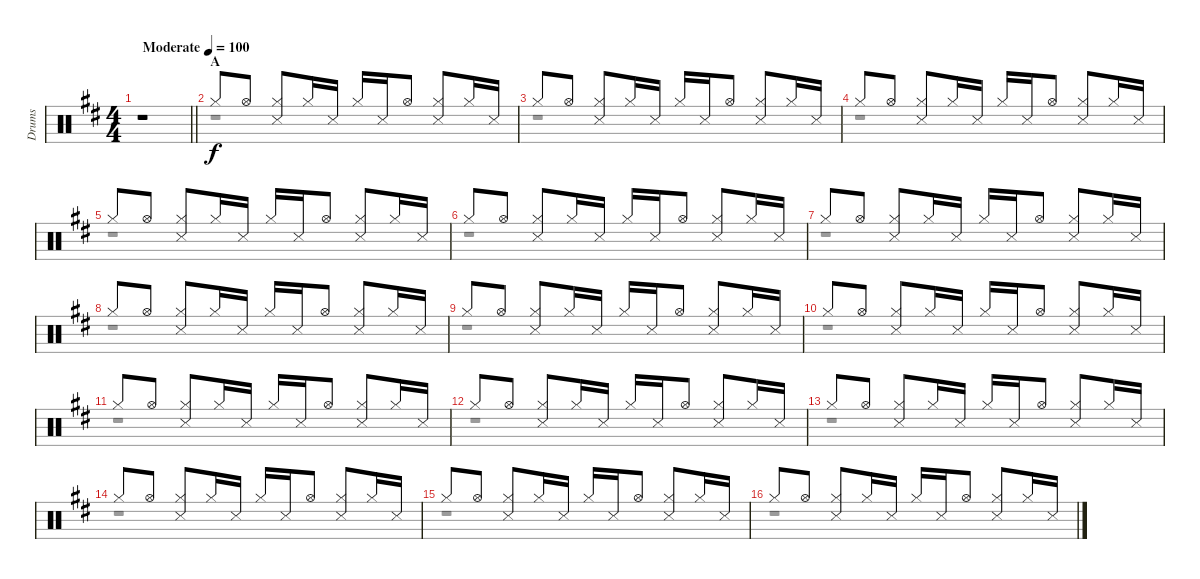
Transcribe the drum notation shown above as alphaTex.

\track ("Drums" "Drums") {instrument percussion}
\staff {score}
\articulation defaults
\voice
\ts (4 4)
\tempo (100 "Moderate")
\clef neutral
\barLineRight lightlight
\ks d
r.1{dy f} |
\section ("" "A")
"Hi-Hat (closed)".8 "Hi-Hat (open)".8 ("Hi-Hat (closed)" "Snare (side stick) 3").8 "Hi-Hat (closed)".16 "Snare (side stick) 3".16 "Hi-Hat (closed)".16 "Snare (side stick) 3".16 "Hi-Hat (open)".8 ("Hi-Hat (closed)" "Snare (side stick) 3").8 "Hi-Hat (closed)".16 "Snare (side stick) 3".16 |
"Hi-Hat (closed)".8 "Hi-Hat (open)".8 ("Hi-Hat (closed)" "Snare (side stick) 3").8 "Hi-Hat (closed)".16 "Snare (side stick) 3".16 "Hi-Hat (closed)".16 "Snare (side stick) 3".16 "Hi-Hat (open)".8 ("Hi-Hat (closed)" "Snare (side stick) 3").8 "Hi-Hat (closed)".16 "Snare (side stick) 3".16 |
"Hi-Hat (closed)".8 "Hi-Hat (open)".8 ("Hi-Hat (closed)" "Snare (side stick) 3").8 "Hi-Hat (closed)".16 "Snare (side stick) 3".16 "Hi-Hat (closed)".16 "Snare (side stick) 3".16 "Hi-Hat (open)".8 ("Hi-Hat (closed)" "Snare (side stick) 3").8 "Hi-Hat (closed)".16 "Snare (side stick) 3".16 |
"Hi-Hat (closed)".8 "Hi-Hat (open)".8 ("Hi-Hat (closed)" "Snare (side stick) 3").8 "Hi-Hat (closed)".16 "Snare (side stick) 3".16 "Hi-Hat (closed)".16 "Snare (side stick) 3".16 "Hi-Hat (open)".8 ("Hi-Hat (closed)" "Snare (side stick) 3").8 "Hi-Hat (closed)".16 "Snare (side stick) 3".16 |
"Hi-Hat (closed)".8 "Hi-Hat (open)".8 ("Hi-Hat (closed)" "Snare (side stick) 3").8 "Hi-Hat (closed)".16 "Snare (side stick) 3".16 "Hi-Hat (closed)".16 "Snare (side stick) 3".16 "Hi-Hat (open)".8 ("Hi-Hat (closed)" "Snare (side stick) 3").8 "Hi-Hat (closed)".16 "Snare (side stick) 3".16 |
"Hi-Hat (closed)".8 "Hi-Hat (open)".8 ("Hi-Hat (closed)" "Snare (side stick) 3").8 "Hi-Hat (closed)".16 "Snare (side stick) 3".16 "Hi-Hat (closed)".16 "Snare (side stick) 3".16 "Hi-Hat (open)".8 ("Hi-Hat (closed)" "Snare (side stick) 3").8 "Hi-Hat (closed)".16 "Snare (side stick) 3".16 |
"Hi-Hat (closed)".8 "Hi-Hat (open)".8 ("Hi-Hat (closed)" "Snare (side stick) 3").8 "Hi-Hat (closed)".16 "Snare (side stick) 3".16 "Hi-Hat (closed)".16 "Snare (side stick) 3".16 "Hi-Hat (open)".8 ("Hi-Hat (closed)" "Snare (side stick) 3").8 "Hi-Hat (closed)".16 "Snare (side stick) 3".16 |
"Hi-Hat (closed)".8 "Hi-Hat (open)".8 ("Hi-Hat (closed)" "Snare (side stick) 3").8 "Hi-Hat (closed)".16 "Snare (side stick) 3".16 "Hi-Hat (closed)".16 "Snare (side stick) 3".16 "Hi-Hat (open)".8 ("Hi-Hat (closed)" "Snare (side stick) 3").8 "Hi-Hat (closed)".16 "Snare (side stick) 3".16 |
"Hi-Hat (closed)".8 "Hi-Hat (open)".8 ("Hi-Hat (closed)" "Snare (side stick) 3").8 "Hi-Hat (closed)".16 "Snare (side stick) 3".16 "Hi-Hat (closed)".16 "Snare (side stick) 3".16 "Hi-Hat (open)".8 ("Hi-Hat (closed)" "Snare (side stick) 3").8 "Hi-Hat (closed)".16 "Snare (side stick) 3".16 |
"Hi-Hat (closed)".8 "Hi-Hat (open)".8 ("Hi-Hat (closed)" "Snare (side stick) 3").8 "Hi-Hat (closed)".16 "Snare (side stick) 3".16 "Hi-Hat (closed)".16 "Snare (side stick) 3".16 "Hi-Hat (open)".8 ("Hi-Hat (closed)" "Snare (side stick) 3").8 "Hi-Hat (closed)".16 "Snare (side stick) 3".16 |
"Hi-Hat (closed)".8 "Hi-Hat (open)".8 ("Hi-Hat (closed)" "Snare (side stick) 3").8 "Hi-Hat (closed)".16 "Snare (side stick) 3".16 "Hi-Hat (closed)".16 "Snare (side stick) 3".16 "Hi-Hat (open)".8 ("Hi-Hat (closed)" "Snare (side stick) 3").8 "Hi-Hat (closed)".16 "Snare (side stick) 3".16 |
"Hi-Hat (closed)".8 "Hi-Hat (open)".8 ("Hi-Hat (closed)" "Snare (side stick) 3").8 "Hi-Hat (closed)".16 "Snare (side stick) 3".16 "Hi-Hat (closed)".16 "Snare (side stick) 3".16 "Hi-Hat (open)".8 ("Hi-Hat (closed)" "Snare (side stick) 3").8 "Hi-Hat (closed)".16 "Snare (side stick) 3".16 |
"Hi-Hat (closed)".8 "Hi-Hat (open)".8 ("Hi-Hat (closed)" "Snare (side stick) 3").8 "Hi-Hat (closed)".16 "Snare (side stick) 3".16 "Hi-Hat (closed)".16 "Snare (side stick) 3".16 "Hi-Hat (open)".8 ("Hi-Hat (closed)" "Snare (side stick) 3").8 "Hi-Hat (closed)".16 "Snare (side stick) 3".16 |
"Hi-Hat (closed)".8 "Hi-Hat (open)".8 ("Hi-Hat (closed)" "Snare (side stick) 3").8 "Hi-Hat (closed)".16 "Snare (side stick) 3".16 "Hi-Hat (closed)".16 "Snare (side stick) 3".16 "Hi-Hat (open)".8 ("Hi-Hat (closed)" "Snare (side stick) 3").8 "Hi-Hat (closed)".16 "Snare (side stick) 3".16 |
"Hi-Hat (closed)".8 "Hi-Hat (open)".8 ("Hi-Hat (closed)" "Snare (side stick) 3").8 "Hi-Hat (closed)".16 "Snare (side stick) 3".16 "Hi-Hat (closed)".16 "Snare (side stick) 3".16 "Hi-Hat (open)".8 ("Hi-Hat (closed)" "Snare (side stick) 3").8 "Hi-Hat (closed)".16 "Snare (side stick) 3".16
\voice
\clef neutral
\ottava regular
\simile none
\barLineRight lightlight
\ks d
r.1{dy fff} |
r.1 |
r.1 |
r.1 |
r.1 |
r.1 |
r.1 |
r.1 |
r.1 |
r.1 |
r.1 |
r.1 |
r.1 |
r.1 |
r.1 |
r.1
